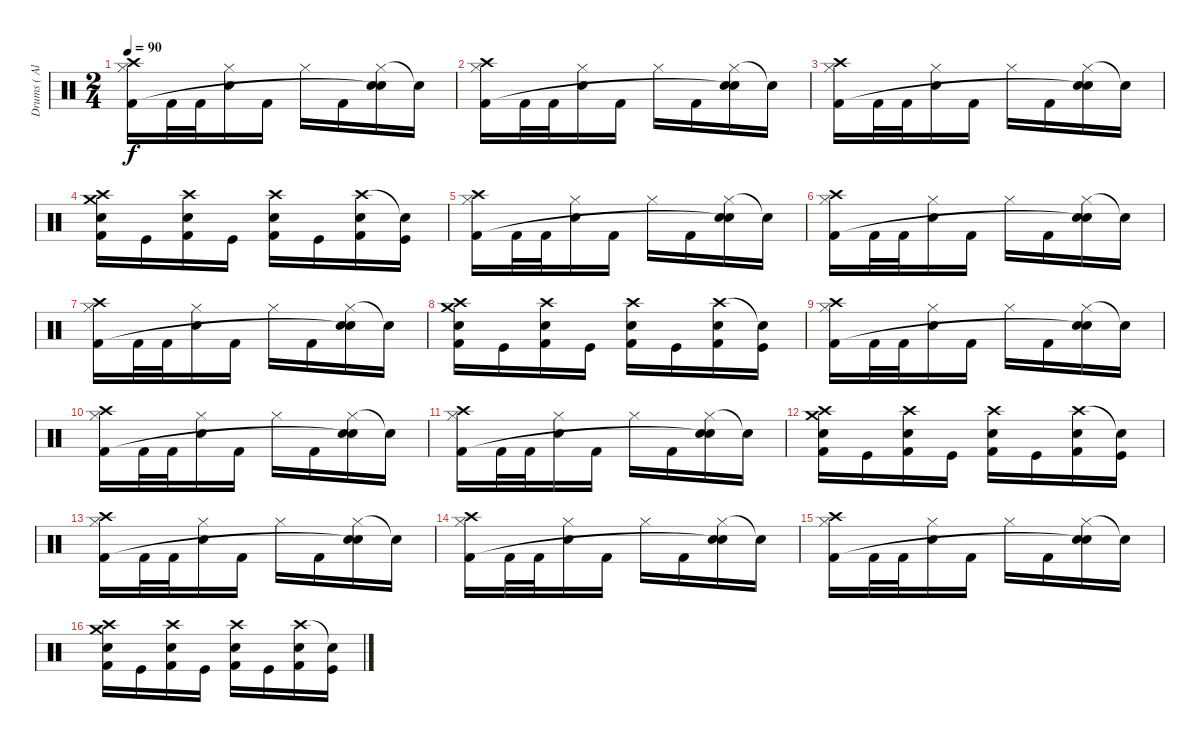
\track ("Drums ( Alex Holzwarth)" "Drums ( Al") {instrument percussion}
\staff {score}
\articulation defaults
\ts (2 4)
\tempo 90
\clef neutral
\ks c
("Crash high (hit)" "Hi-Hat (closed)" "Kick (hit) 2").16{dy f} "Kick (hit) 2".32 "Kick (hit) 2".32 ("Hi-Hat (closed)" "Electric Snare (hit)").16 "Kick (hit) 2".16 "Hi-Hat (closed)".16 "Kick (hit) 2".16 ("Hi-Hat (closed)" "Electric Snare (hit)" "Snare (hit)"{t}).16 "Snare (hit)"{t}.16 |
("Crash high (hit)" "Hi-Hat (closed)" "Kick (hit) 2").16 "Kick (hit) 2".32 "Kick (hit) 2".32 ("Hi-Hat (closed)" "Electric Snare (hit)").16 "Kick (hit) 2".16 "Hi-Hat (closed)".16 "Kick (hit) 2".16 ("Hi-Hat (closed)" "Electric Snare (hit)" "Snare (hit)"{t}).16 "Snare (hit)"{t}.16 |
("Crash high (hit)" "Hi-Hat (closed)" "Kick (hit) 2").16 "Kick (hit) 2".32 "Kick (hit) 2".32 ("Hi-Hat (closed)" "Electric Snare (hit)").16 "Kick (hit) 2".16 "Hi-Hat (closed)".16 "Kick (hit) 2".16 ("Hi-Hat (closed)" "Electric Snare (hit)" "Snare (hit)"{t}).16 "Snare (hit)"{t}.16 |
("Crash high (hit)" "Crash medium (hit)" "Snare (hit) 2" "Kick (hit) 2").16 "Kick (hit)".16 ("Crash high (hit)" "Snare (hit) 2" "Kick (hit) 2").16 "Kick (hit)".16 ("Crash high (hit)" "Snare (hit) 2" "Kick (hit) 2").16 "Kick (hit)".16 ("Crash high (hit)" "Snare (hit) 2" "Kick (hit) 2").16 ("Snare (hit)"{t} "Kick (hit)").16 |
("Crash high (hit)" "Hi-Hat (closed)" "Kick (hit) 2").16 "Kick (hit) 2".32 "Kick (hit) 2".32 ("Hi-Hat (closed)" "Electric Snare (hit)").16 "Kick (hit) 2".16 "Hi-Hat (closed)".16 "Kick (hit) 2".16 ("Hi-Hat (closed)" "Electric Snare (hit)" "Snare (hit)"{t}).16 "Snare (hit)"{t}.16 |
("Crash high (hit)" "Hi-Hat (closed)" "Kick (hit) 2").16 "Kick (hit) 2".32 "Kick (hit) 2".32 ("Hi-Hat (closed)" "Electric Snare (hit)").16 "Kick (hit) 2".16 "Hi-Hat (closed)".16 "Kick (hit) 2".16 ("Hi-Hat (closed)" "Electric Snare (hit)" "Snare (hit)"{t}).16 "Snare (hit)"{t}.16 |
("Crash high (hit)" "Hi-Hat (closed)" "Kick (hit) 2").16 "Kick (hit) 2".32 "Kick (hit) 2".32 ("Hi-Hat (closed)" "Electric Snare (hit)").16 "Kick (hit) 2".16 "Hi-Hat (closed)".16 "Kick (hit) 2".16 ("Hi-Hat (closed)" "Electric Snare (hit)" "Snare (hit)"{t}).16 "Snare (hit)"{t}.16 |
("Crash high (hit)" "Crash medium (hit)" "Snare (hit) 2" "Kick (hit) 2").16 "Kick (hit)".16 ("Crash high (hit)" "Snare (hit) 2" "Kick (hit) 2").16 "Kick (hit)".16 ("Crash high (hit)" "Snare (hit) 2" "Kick (hit) 2").16 "Kick (hit)".16 ("Crash high (hit)" "Snare (hit) 2" "Kick (hit) 2").16 ("Snare (hit)"{t} "Kick (hit)").16 |
("Crash high (hit)" "Hi-Hat (closed)" "Kick (hit) 2").16 "Kick (hit) 2".32 "Kick (hit) 2".32 ("Hi-Hat (closed)" "Electric Snare (hit)").16 "Kick (hit) 2".16 "Hi-Hat (closed)".16 "Kick (hit) 2".16 ("Hi-Hat (closed)" "Electric Snare (hit)" "Snare (hit)"{t}).16 "Snare (hit)"{t}.16 |
("Crash high (hit)" "Hi-Hat (closed)" "Kick (hit) 2").16 "Kick (hit) 2".32 "Kick (hit) 2".32 ("Hi-Hat (closed)" "Electric Snare (hit)").16 "Kick (hit) 2".16 "Hi-Hat (closed)".16 "Kick (hit) 2".16 ("Hi-Hat (closed)" "Electric Snare (hit)" "Snare (hit)"{t}).16 "Snare (hit)"{t}.16 |
("Crash high (hit)" "Hi-Hat (closed)" "Kick (hit) 2").16 "Kick (hit) 2".32 "Kick (hit) 2".32 ("Hi-Hat (closed)" "Electric Snare (hit)").16 "Kick (hit) 2".16 "Hi-Hat (closed)".16 "Kick (hit) 2".16 ("Hi-Hat (closed)" "Electric Snare (hit)" "Snare (hit)"{t}).16 "Snare (hit)"{t}.16 |
("Crash high (hit)" "Crash medium (hit)" "Snare (hit) 2" "Kick (hit) 2").16 "Kick (hit)".16 ("Crash high (hit)" "Snare (hit) 2" "Kick (hit) 2").16 "Kick (hit)".16 ("Crash high (hit)" "Snare (hit) 2" "Kick (hit) 2").16 "Kick (hit)".16 ("Crash high (hit)" "Snare (hit) 2" "Kick (hit) 2").16 ("Snare (hit)"{t} "Kick (hit)").16 |
("Crash high (hit)" "Hi-Hat (closed)" "Kick (hit) 2").16 "Kick (hit) 2".32 "Kick (hit) 2".32 ("Hi-Hat (closed)" "Electric Snare (hit)").16 "Kick (hit) 2".16 "Hi-Hat (closed)".16 "Kick (hit) 2".16 ("Hi-Hat (closed)" "Electric Snare (hit)" "Snare (hit)"{t}).16 "Snare (hit)"{t}.16 |
("Crash high (hit)" "Hi-Hat (closed)" "Kick (hit) 2").16 "Kick (hit) 2".32 "Kick (hit) 2".32 ("Hi-Hat (closed)" "Electric Snare (hit)").16 "Kick (hit) 2".16 "Hi-Hat (closed)".16 "Kick (hit) 2".16 ("Hi-Hat (closed)" "Electric Snare (hit)" "Snare (hit)"{t}).16 "Snare (hit)"{t}.16 |
("Crash high (hit)" "Hi-Hat (closed)" "Kick (hit) 2").16 "Kick (hit) 2".32 "Kick (hit) 2".32 ("Hi-Hat (closed)" "Electric Snare (hit)").16 "Kick (hit) 2".16 "Hi-Hat (closed)".16 "Kick (hit) 2".16 ("Hi-Hat (closed)" "Electric Snare (hit)" "Snare (hit)"{t}).16 "Snare (hit)"{t}.16 |
("Crash high (hit)" "Crash medium (hit)" "Snare (hit) 2" "Kick (hit) 2").16 "Kick (hit)".16 ("Crash high (hit)" "Snare (hit) 2" "Kick (hit) 2").16 "Kick (hit)".16 ("Crash high (hit)" "Snare (hit) 2" "Kick (hit) 2").16 "Kick (hit)".16 ("Crash high (hit)" "Snare (hit) 2" "Kick (hit) 2").16 ("Snare (hit)"{t} "Kick (hit)").16
